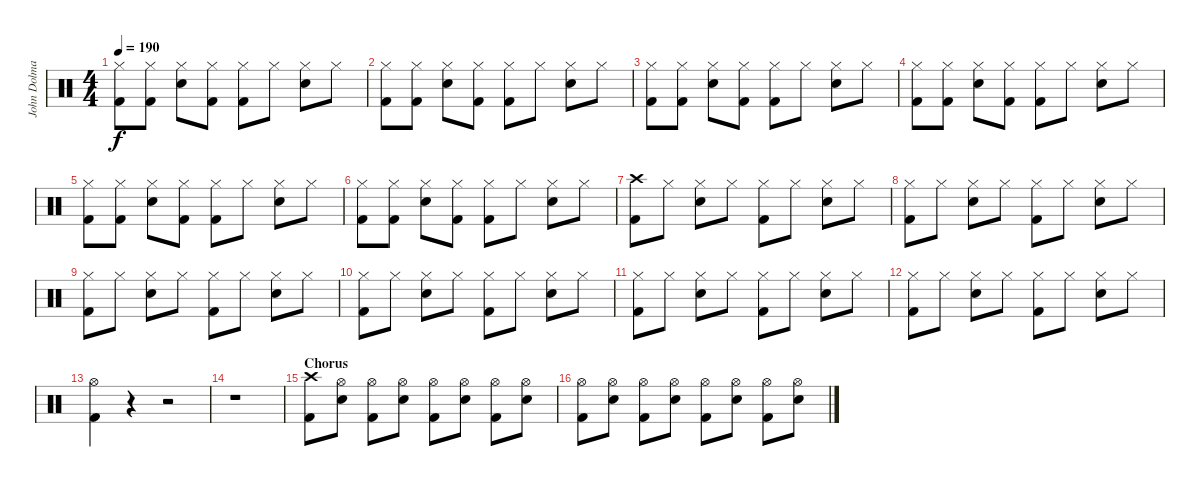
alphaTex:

\track ("John Dolmayan" "John Dolma") {instrument percussion}
\staff {score}
\articulation defaults
\ts (4 4)
\tempo 190
\clef neutral
\ks c
("Hi-Hat (closed)" "Kick (hit) 2").8{dy f} ("Hi-Hat (closed)" "Kick (hit) 2").8 ("Hi-Hat (closed)" "Electric Snare (hit)").8 ("Hi-Hat (closed)" "Kick (hit) 2").8 ("Hi-Hat (closed)" "Kick (hit) 2").8 "Hi-Hat (closed)".8 ("Hi-Hat (closed)" "Electric Snare (hit)").8 "Hi-Hat (closed)".8 |
("Hi-Hat (closed)" "Kick (hit) 2").8 ("Hi-Hat (closed)" "Kick (hit) 2").8 ("Hi-Hat (closed)" "Electric Snare (hit)").8 ("Hi-Hat (closed)" "Kick (hit) 2").8 ("Hi-Hat (closed)" "Kick (hit) 2").8 "Hi-Hat (closed)".8 ("Hi-Hat (closed)" "Electric Snare (hit)").8 "Hi-Hat (closed)".8 |
("Hi-Hat (closed)" "Kick (hit) 2").8 ("Hi-Hat (closed)" "Kick (hit) 2").8 ("Hi-Hat (closed)" "Electric Snare (hit)").8 ("Hi-Hat (closed)" "Kick (hit) 2").8 ("Hi-Hat (closed)" "Kick (hit) 2").8 "Hi-Hat (closed)".8 ("Hi-Hat (closed)" "Electric Snare (hit)").8 "Hi-Hat (closed)".8 |
("Hi-Hat (closed)" "Kick (hit) 2").8 ("Hi-Hat (closed)" "Kick (hit) 2").8 ("Hi-Hat (closed)" "Electric Snare (hit)").8 ("Hi-Hat (closed)" "Kick (hit) 2").8 ("Hi-Hat (closed)" "Kick (hit) 2").8 "Hi-Hat (closed)".8 ("Hi-Hat (closed)" "Electric Snare (hit)").8 "Hi-Hat (closed)".8 |
("Hi-Hat (closed)" "Kick (hit) 2").8 ("Hi-Hat (closed)" "Kick (hit) 2").8 ("Hi-Hat (closed)" "Electric Snare (hit)").8 ("Hi-Hat (closed)" "Kick (hit) 2").8 ("Hi-Hat (closed)" "Kick (hit) 2").8 "Hi-Hat (closed)".8 ("Hi-Hat (closed)" "Electric Snare (hit)").8 "Hi-Hat (closed)".8 |
("Hi-Hat (closed)" "Kick (hit) 2").8 ("Hi-Hat (closed)" "Kick (hit) 2").8 ("Hi-Hat (closed)" "Electric Snare (hit)").8 ("Hi-Hat (closed)" "Kick (hit) 2").8 ("Hi-Hat (closed)" "Kick (hit) 2").8 "Hi-Hat (closed)".8 ("Hi-Hat (closed)" "Electric Snare (hit)").8 "Hi-Hat (closed)".8 |
("Crash high (hit)" "Kick (hit) 2").8 "Hi-Hat (closed)".8 ("Hi-Hat (closed)" "Electric Snare (hit)").8 "Hi-Hat (closed)".8 ("Hi-Hat (closed)" "Kick (hit) 2").8 "Hi-Hat (closed)".8 ("Hi-Hat (closed)" "Electric Snare (hit)").8 "Hi-Hat (closed)".8 |
("Hi-Hat (closed)" "Kick (hit) 2").8 "Hi-Hat (closed)".8 ("Hi-Hat (closed)" "Electric Snare (hit)").8 "Hi-Hat (closed)".8 ("Hi-Hat (closed)" "Kick (hit) 2").8 "Hi-Hat (closed)".8 ("Hi-Hat (closed)" "Electric Snare (hit)").8 "Hi-Hat (closed)".8 |
("Hi-Hat (closed)" "Kick (hit) 2").8 "Hi-Hat (closed)".8 ("Hi-Hat (closed)" "Electric Snare (hit)").8 "Hi-Hat (closed)".8 ("Hi-Hat (closed)" "Kick (hit) 2").8 "Hi-Hat (closed)".8 ("Hi-Hat (closed)" "Electric Snare (hit)").8 "Hi-Hat (closed)".8 |
("Hi-Hat (closed)" "Kick (hit) 2").8 "Hi-Hat (closed)".8 ("Hi-Hat (closed)" "Electric Snare (hit)").8 "Hi-Hat (closed)".8 ("Hi-Hat (closed)" "Kick (hit) 2").8 "Hi-Hat (closed)".8 ("Hi-Hat (closed)" "Electric Snare (hit)").8 "Hi-Hat (closed)".8 |
("Hi-Hat (closed)" "Kick (hit) 2").8 "Hi-Hat (closed)".8 ("Hi-Hat (closed)" "Electric Snare (hit)").8 "Hi-Hat (closed)".8 ("Hi-Hat (closed)" "Kick (hit) 2").8 "Hi-Hat (closed)".8 ("Hi-Hat (closed)" "Electric Snare (hit)").8 "Hi-Hat (closed)".8 |
("Hi-Hat (closed)" "Kick (hit) 2").8 "Hi-Hat (closed)".8 ("Hi-Hat (closed)" "Electric Snare (hit)").8 "Hi-Hat (closed)".8 ("Hi-Hat (closed)" "Kick (hit) 2").8 "Hi-Hat (closed)".8 ("Hi-Hat (closed)" "Electric Snare (hit)").8 "Hi-Hat (closed)".8 |
("Hi-Hat (open)" "Kick (hit) 2").4 r.4 r.2 |
r.1 |
\section ("" "Chorus")
("Crash high (hit)" "Kick (hit) 2").8 ("Hi-Hat (open)" "Electric Snare (hit)").8 ("Hi-Hat (open)" "Kick (hit) 2").8 ("Hi-Hat (open)" "Electric Snare (hit)").8 ("Hi-Hat (open)" "Kick (hit) 2").8 ("Hi-Hat (open)" "Electric Snare (hit)").8 ("Hi-Hat (open)" "Kick (hit) 2").8 ("Hi-Hat (open)" "Electric Snare (hit)").8 |
("Hi-Hat (open)" "Kick (hit) 2").8 ("Hi-Hat (open)" "Electric Snare (hit)").8 ("Hi-Hat (open)" "Kick (hit) 2").8 ("Hi-Hat (open)" "Electric Snare (hit)").8 ("Hi-Hat (open)" "Kick (hit) 2").8 ("Hi-Hat (open)" "Electric Snare (hit)").8 ("Hi-Hat (open)" "Kick (hit) 2").8 ("Hi-Hat (open)" "Electric Snare (hit)").8
